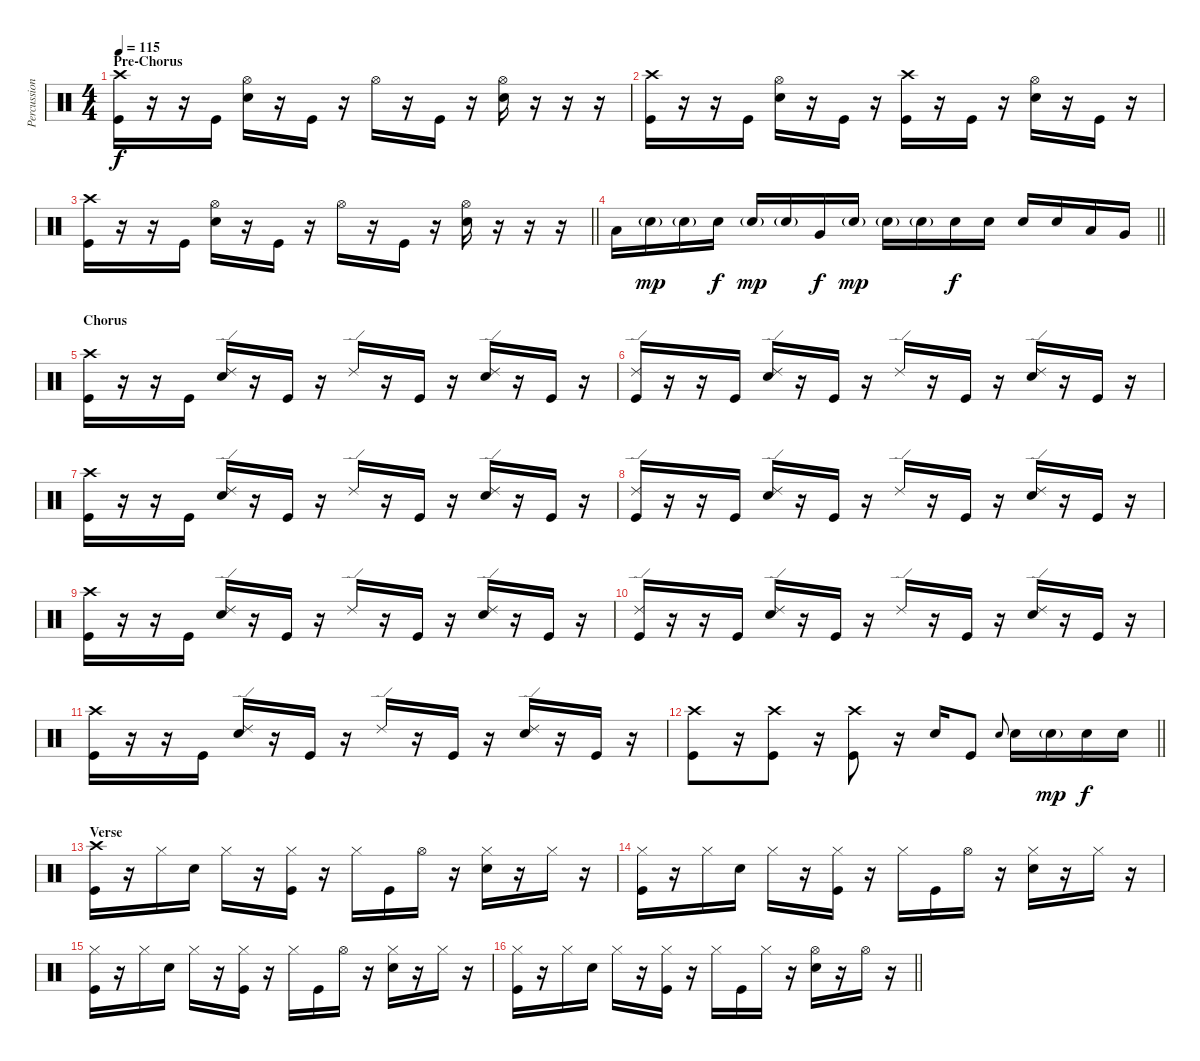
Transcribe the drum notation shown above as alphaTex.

\track ("Percussion" "Percussion") {instrument percussion}
\staff {score}
\articulation defaults
\ts (4 4)
\section ("" "Pre-Chorus")
\tempo 115
\clef neutral
\ks c
("Crash high (hit)" "Kick (hit)").16{dy f} r.16 r.16 "Kick (hit)".16 ("Hi-Hat (open)" "Electric Snare (hit)").16 r.16 "Kick (hit)".16 r.16 "Hi-Hat (open)".16 r.16 "Kick (hit)".16 r.16 ("Hi-Hat (open)" "Electric Snare (hit)").16 r.16 r.16 r.16 |
("Crash high (hit)" "Kick (hit)").16 r.16 r.16 "Kick (hit)".16 ("Hi-Hat (open)" "Electric Snare (hit)").16 r.16 "Kick (hit)".16 r.16 ("Crash high (hit)" "Kick (hit)").16 r.16 "Kick (hit)".16 r.16 ("Hi-Hat (open)" "Electric Snare (hit)").16 r.16 "Kick (hit)".16 r.16 |
\barLineRight lightlight
("Crash high (hit)" "Kick (hit)").16 r.16 r.16 "Kick (hit)".16 ("Hi-Hat (open)" "Electric Snare (hit)").16 r.16 "Kick (hit)".16 r.16 "Hi-Hat (open)".16 r.16 "Kick (hit)".16 r.16 ("Hi-Hat (open)" "Electric Snare (hit)").16 r.16 r.16 r.16 |
\barLineRight lightlight "Low Tom (hit)".16 "Electric Snare (hit)"{g}.16{dy mp} "Electric Snare (hit)"{g}.16 "Electric Snare (hit)".16{dy f} "Electric Snare (hit)"{g}.16{dy mp} "Electric Snare (hit)"{g}.16 "Very Low Tom (hit)".16{dy f} "Electric Snare (hit)"{g}.16{dy mp} "Electric Snare (hit)"{g}.16 "Electric Snare (hit)"{g}.16 "Electric Snare (hit)".16{dy f} "Electric Snare (hit)".16 "Electric Snare (hit)".16 "Electric Snare (hit)".16 "Low Tom (hit)".16 "Very Low Tom (hit)".16
|
\section ("" "Chorus")
("Crash high (hit)" "Kick (hit)").16 r.16 r.16 "Kick (hit)".16 ("Ride (edge) 2" "Electric Snare (hit)").16 r.16 "Kick (hit)".16 r.16 "Ride (edge) 2".16 r.16 "Kick (hit)".16 r.16 ("Ride (edge) 2" "Electric Snare (hit)").16 r.16 "Kick (hit)".16 r.16 |
("Ride (edge) 2" "Kick (hit)").16 r.16 r.16 "Kick (hit)".16 ("Ride (edge) 2" "Electric Snare (hit)").16 r.16 "Kick (hit)".16 r.16 "Ride (edge) 2".16 r.16 "Kick (hit)".16 r.16 ("Ride (edge) 2" "Electric Snare (hit)").16 r.16 "Kick (hit)".16 r.16 |
("Crash high (hit)" "Kick (hit)").16 r.16 r.16 "Kick (hit)".16 ("Ride (edge) 2" "Electric Snare (hit)").16 r.16 "Kick (hit)".16 r.16 "Ride (edge) 2".16 r.16 "Kick (hit)".16 r.16 ("Ride (edge) 2" "Electric Snare (hit)").16 r.16 "Kick (hit)".16 r.16 |
("Ride (edge) 2" "Kick (hit)").16 r.16 r.16 "Kick (hit)".16 ("Ride (edge) 2" "Electric Snare (hit)").16 r.16 "Kick (hit)".16 r.16 "Ride (edge) 2".16 r.16 "Kick (hit)".16 r.16 ("Ride (edge) 2" "Electric Snare (hit)").16 r.16 "Kick (hit)".16 r.16 |
("Crash high (hit)" "Kick (hit)").16 r.16 r.16 "Kick (hit)".16 ("Ride (edge) 2" "Electric Snare (hit)").16 r.16 "Kick (hit)".16 r.16 "Ride (edge) 2".16 r.16 "Kick (hit)".16 r.16 ("Ride (edge) 2" "Electric Snare (hit)").16 r.16 "Kick (hit)".16 r.16 |
("Ride (edge) 2" "Kick (hit)").16 r.16 r.16 "Kick (hit)".16 ("Ride (edge) 2" "Electric Snare (hit)").16 r.16 "Kick (hit)".16 r.16 "Ride (edge) 2".16 r.16 "Kick (hit)".16 r.16 ("Ride (edge) 2" "Electric Snare (hit)").16 r.16 "Kick (hit)".16 r.16 |
("Crash high (hit)" "Kick (hit)").16 r.16 r.16 "Kick (hit)".16 ("Ride (edge) 2" "Electric Snare (hit)").16 r.16 "Kick (hit)".16 r.16 "Ride (edge) 2".16 r.16 "Kick (hit)".16 r.16 ("Ride (edge) 2" "Electric Snare (hit)").16 r.16 "Kick (hit)".16 r.16 |
\barLineRight lightlight
("Crash high (hit)" "Kick (hit)").8 r.16 ("Crash high (hit)" "Kick (hit)").8 r.16 ("Crash high (hit)" "Kick (hit)").8 r.16 "Electric Snare (hit)".16 "Kick (hit)".8 "Electric Snare (hit)".8{gr onbeat} "Electric Snare (hit)".16 "Electric Snare (hit)"{g}.16{dy mp} "Electric Snare (hit)".16{dy f} "Electric Snare (hit)".16 |
\section ("" "Verse")
("Crash high (hit)" "Kick (hit)").16 r.16 "Hi-Hat (closed)".16 "Electric Snare (hit)".16 "Hi-Hat (closed)".16 r.16 ("Hi-Hat (closed)" "Kick (hit)").16 r.16 "Hi-Hat (closed)".16 "Kick (hit)".16 "Hi-Hat (open)".16 r.16 ("Hi-Hat (closed)" "Electric Snare (hit)").16 r.16 "Hi-Hat (closed)".16 r.16 |
("Hi-Hat (closed)" "Kick (hit)").16 r.16 "Hi-Hat (closed)".16 "Electric Snare (hit)".16 "Hi-Hat (closed)".16 r.16 ("Hi-Hat (closed)" "Kick (hit)").16 r.16 "Hi-Hat (closed)".16 "Kick (hit)".16 "Hi-Hat (open)".16 r.16 ("Hi-Hat (closed)" "Electric Snare (hit)").16 r.16 "Hi-Hat (closed)".16 r.16 |
("Hi-Hat (closed)" "Kick (hit)").16 r.16 "Hi-Hat (closed)".16 "Electric Snare (hit)".16 "Hi-Hat (closed)".16 r.16 ("Hi-Hat (closed)" "Kick (hit)").16 r.16 "Hi-Hat (closed)".16 "Kick (hit)".16 "Hi-Hat (open)".16 r.16 ("Hi-Hat (closed)" "Electric Snare (hit)").16 r.16 "Hi-Hat (closed)".16 r.16 |
\barLineRight lightlight
("Hi-Hat (closed)" "Kick (hit)").16 r.16 "Hi-Hat (closed)".16 "Electric Snare (hit)".16 "Hi-Hat (closed)".16 r.16 ("Hi-Hat (closed)" "Kick (hit)").16 r.16 "Hi-Hat (closed)".16 "Kick (hit)".16 "Hi-Hat (closed)".16 r.16 ("Hi-Hat (open)" "Electric Snare (hit)").16 r.16 "Hi-Hat (open)".16 r.16
